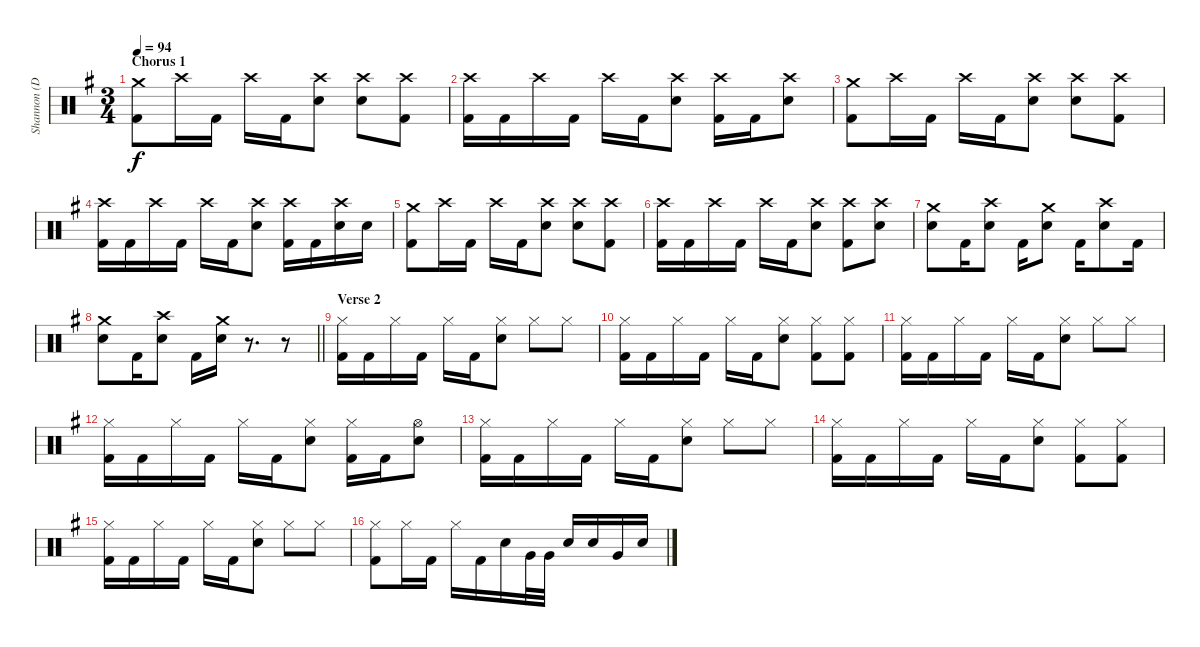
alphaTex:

\track ("Shannon (Drums)" "Shannon (D") {instrument percussion}
\staff {score}
\articulation defaults
\ts (3 4)
\section ("" "Chorus 1")
\tempo 94
\clef neutral
\ks g
("Crash medium (hit)" "Kick (hit) 2").8{dy f} "Crash high (hit)".16 "Kick (hit) 2".16 "Crash high (hit)".16 "Kick (hit) 2".16 ("Crash high (hit)" "Electric Snare (hit)").8 ("Crash high (hit)" "Electric Snare (hit)").8 ("Crash high (hit)" "Kick (hit) 2").8 |
("Crash high (hit)" "Kick (hit) 2").16 "Kick (hit) 2".16 "Crash high (hit)".16 "Kick (hit) 2".16 "Crash high (hit)".16 "Kick (hit) 2".16 ("Crash high (hit)" "Electric Snare (hit)").8 ("Crash high (hit)" "Kick (hit) 2").16 "Kick (hit) 2".16 ("Crash high (hit)" "Electric Snare (hit)").8 |
("Crash medium (hit)" "Kick (hit) 2").8 "Crash high (hit)".16 "Kick (hit) 2".16 "Crash high (hit)".16 "Kick (hit) 2".16 ("Crash high (hit)" "Electric Snare (hit)").8 ("Crash high (hit)" "Electric Snare (hit)").8 ("Crash high (hit)" "Kick (hit) 2").8 |
("Crash high (hit)" "Kick (hit) 2").16 "Kick (hit) 2".16 "Crash high (hit)".16 "Kick (hit) 2".16 "Crash high (hit)".16 "Kick (hit) 2".16 ("Crash high (hit)" "Electric Snare (hit)").8 ("Crash high (hit)" "Kick (hit) 2").16 "Kick (hit) 2".16 ("Crash high (hit)" "Electric Snare (hit)").16 "Electric Snare (hit)".16 |
("Crash medium (hit)" "Kick (hit) 2").8 "Crash high (hit)".16 "Kick (hit) 2".16 "Crash high (hit)".16 "Kick (hit) 2".16 ("Crash high (hit)" "Electric Snare (hit)").8 ("Crash high (hit)" "Electric Snare (hit)").8 ("Crash high (hit)" "Kick (hit) 2").8 |
("Crash high (hit)" "Kick (hit) 2").16 "Kick (hit) 2".16 "Crash high (hit)".16 "Kick (hit) 2".16 "Crash high (hit)".16 "Kick (hit) 2".16 ("Crash high (hit)" "Electric Snare (hit)").8 ("Crash high (hit)" "Kick (hit) 2").8 ("Crash high (hit)" "Electric Snare (hit)").8 |
("Crash medium (hit)" "Electric Snare (hit)").8 "Kick (hit) 2".16 ("Crash high (hit)" "Electric Snare (hit)").8 "Kick (hit) 2".16 ("Crash medium (hit)" "Electric Snare (hit)").8 "Kick (hit) 2".16 ("Crash high (hit)" "Electric Snare (hit)").8 "Kick (hit) 2".16 |
\barLineRight lightlight
("Crash medium (hit)" "Electric Snare (hit)").8 "Kick (hit) 2".16 ("Crash high (hit)" "Electric Snare (hit)").8 "Kick (hit) 2".16 ("Crash medium (hit)" "Electric Snare (hit)").16 r.8{d} r.8 |
\section ("" "Verse 2")
("Hi-Hat (closed)" "Kick (hit) 2").16 "Kick (hit) 2".16 "Hi-Hat (closed)".16 "Kick (hit) 2".16 "Hi-Hat (closed)".16 "Kick (hit) 2".16 ("Hi-Hat (closed)" "Electric Snare (hit)").8 "Hi-Hat (closed)".8 "Hi-Hat (closed)".8 |
("Hi-Hat (closed)" "Kick (hit) 2").16 "Kick (hit) 2".16 "Hi-Hat (closed)".16 "Kick (hit) 2".16 "Hi-Hat (closed)".16 "Kick (hit) 2".16 ("Hi-Hat (closed)" "Electric Snare (hit)").8 ("Hi-Hat (closed)" "Kick (hit) 2").8 ("Hi-Hat (closed)" "Kick (hit) 2").8 |
("Hi-Hat (closed)" "Kick (hit) 2").16 "Kick (hit) 2".16 "Hi-Hat (closed)".16 "Kick (hit) 2".16 "Hi-Hat (closed)".16 "Kick (hit) 2".16 ("Hi-Hat (closed)" "Electric Snare (hit)").8 "Hi-Hat (closed)".8 "Hi-Hat (closed)".8 |
("Hi-Hat (closed)" "Kick (hit) 2").16 "Kick (hit) 2".16 "Hi-Hat (closed)".16 "Kick (hit) 2".16 "Hi-Hat (closed)".16 "Kick (hit) 2".16 ("Hi-Hat (closed)" "Electric Snare (hit)").8 ("Hi-Hat (closed)" "Kick (hit) 2").16 "Kick (hit) 2".16 ("Hi-Hat (open)" "Electric Snare (hit)").8 |
("Hi-Hat (closed)" "Kick (hit) 2").16 "Kick (hit) 2".16 "Hi-Hat (closed)".16 "Kick (hit) 2".16 "Hi-Hat (closed)".16 "Kick (hit) 2".16 ("Hi-Hat (closed)" "Electric Snare (hit)").8 "Hi-Hat (closed)".8 "Hi-Hat (closed)".8 |
("Hi-Hat (closed)" "Kick (hit) 2").16 "Kick (hit) 2".16 "Hi-Hat (closed)".16 "Kick (hit) 2".16 "Hi-Hat (closed)".16 "Kick (hit) 2".16 ("Hi-Hat (closed)" "Electric Snare (hit)").8 ("Hi-Hat (closed)" "Kick (hit) 2").8 ("Hi-Hat (closed)" "Kick (hit) 2").8 |
("Hi-Hat (closed)" "Kick (hit) 2").16 "Kick (hit) 2".16 "Hi-Hat (closed)".16 "Kick (hit) 2".16 "Hi-Hat (closed)".16 "Kick (hit) 2".16 ("Hi-Hat (closed)" "Electric Snare (hit)").8 "Hi-Hat (closed)".8 "Hi-Hat (closed)".8 |
("Hi-Hat (closed)" "Kick (hit) 2").8 "Hi-Hat (closed)".16 "Kick (hit) 2".16 "Hi-Hat (closed)".16 "Kick (hit) 2".16 "Electric Snare (hit)".16 "Very Low Tom (hit)".32 "Very Low Tom (hit)".32 "Electric Snare (hit)".16 "Electric Snare (hit)".16 "Very Low Tom (hit)".16 "Electric Snare (hit)".16
